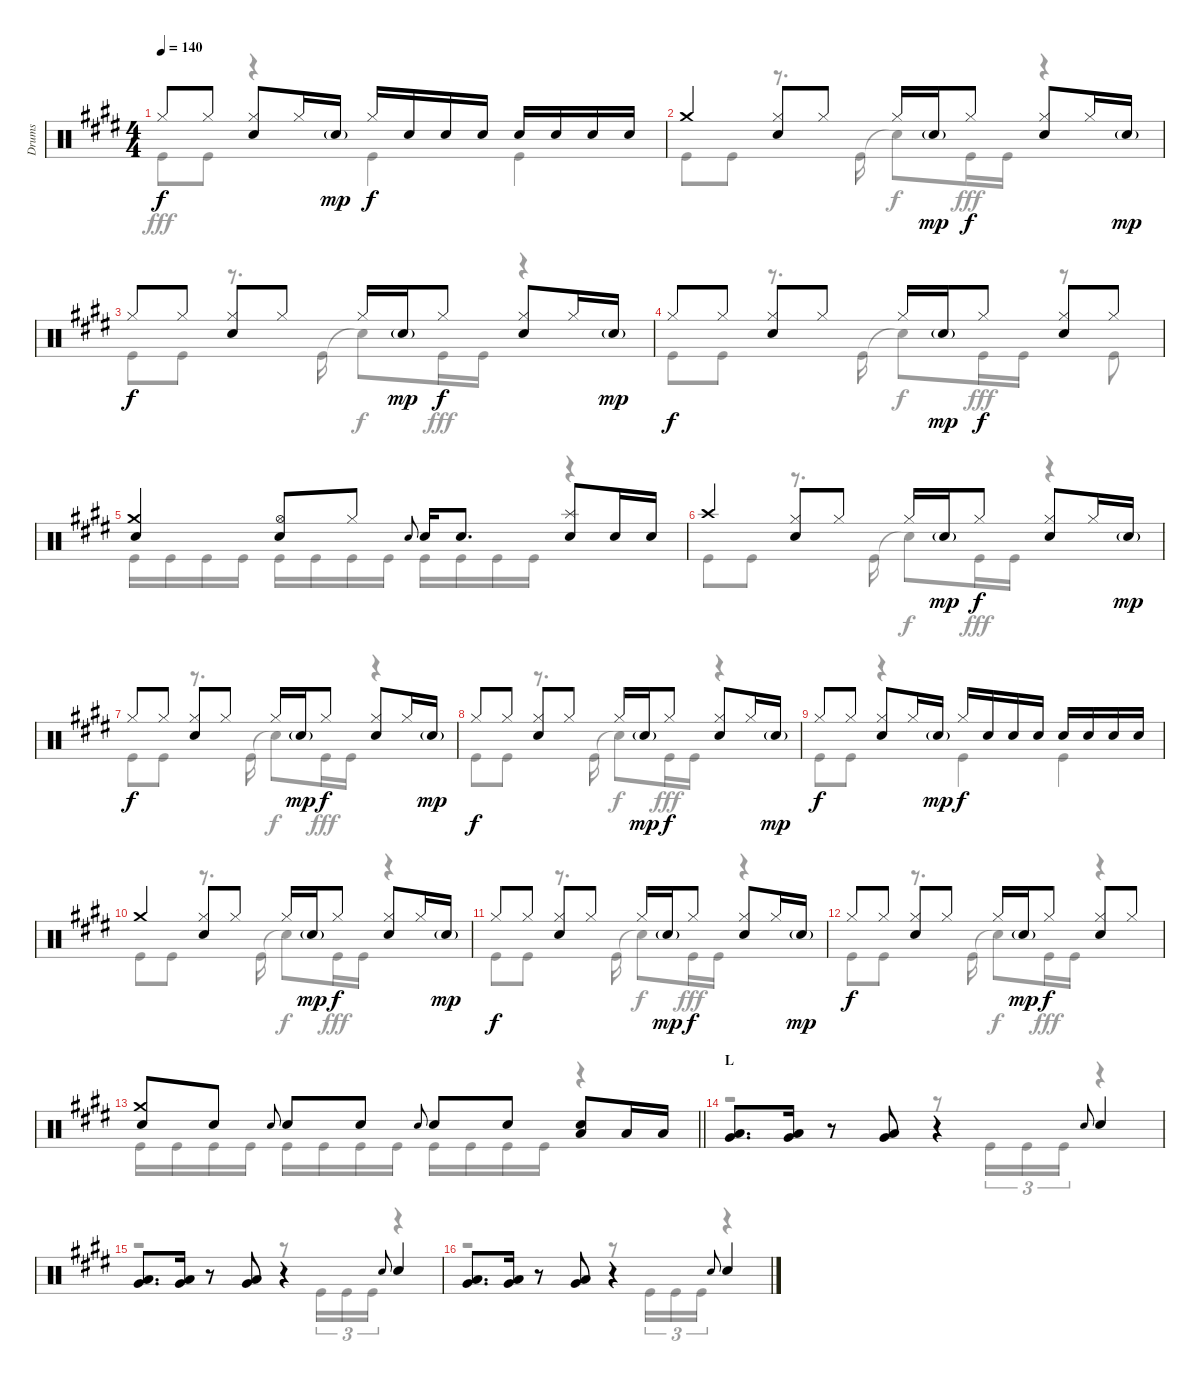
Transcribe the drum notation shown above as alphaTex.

\track ("Drums" "Drums") {instrument percussion}
\staff {score}
\articulation defaults
\voice
\ts (4 4)
\tempo 140
\clef neutral
\ks e "Hi-Hat (closed)".8{dy f} "Hi-Hat (closed)".8
("Hi-Hat (closed)" "Snare (hit) 2").8 "Hi-Hat (closed)".16 "Snare (hit) 2"{g}.16{dy mp} "Hi-Hat (closed)".16{dy f} "Snare (hit) 2".16 "Snare (hit) 2".16 "Snare (hit) 2".16 "Snare (hit) 2".16 "Snare (hit) 2".16 "Snare (hit) 2".16 "Snare (hit) 2".16 |
"Crash medium (hit)".4 ("Hi-Hat (closed)" "Snare (hit) 2").8 "Hi-Hat (closed)".8 "Hi-Hat (closed)".16 "Snare (hit) 2"{g}.16{dy mp} "Hi-Hat (closed)".8{dy f} ("Hi-Hat (closed)" "Snare (hit) 2").8 "Hi-Hat (closed)".16 "Snare (hit) 2"{g}.16{dy mp} |
"Hi-Hat (closed)".8{dy f} "Hi-Hat (closed)".8 ("Hi-Hat (closed)" "Snare (hit) 2").8 "Hi-Hat (closed)".8 "Hi-Hat (closed)".16 "Snare (hit) 2"{g}.16{dy mp} "Hi-Hat (closed)".8{dy f} ("Hi-Hat (closed)" "Snare (hit) 2").8 "Hi-Hat (closed)".16 "Snare (hit) 2"{g}.16{dy mp} |
"Hi-Hat (closed)".8{dy f} "Hi-Hat (closed)".8 ("Hi-Hat (closed)" "Snare (hit) 2").8 "Hi-Hat (closed)".8 "Hi-Hat (closed)".16 "Snare (hit) 2"{g}.16{dy mp} "Hi-Hat (closed)".8{dy f} ("Hi-Hat (closed)" "Snare (hit) 2").8 "Hi-Hat (closed)".8 |
("Crash medium (hit)" "Snare (hit) 2").4 ("Hi-Hat (open)" "Snare (hit) 2").8 "Hi-Hat (closed)".8 "Snare (hit) 2".8{gr onbeat} "Snare (hit) 2".16 "Snare (hit) 2".8{d} ("Splash (hit)" "Snare (hit) 2").8 "Snare (hit) 2".16 "Snare (hit) 2".16 |
"Crash high (hit)".4 ("Hi-Hat (closed)" "Snare (hit) 2").8 "Hi-Hat (closed)".8 "Hi-Hat (closed)".16 "Snare (hit) 2"{g}.16{dy mp} "Hi-Hat (closed)".8{dy f} ("Hi-Hat (closed)" "Snare (hit) 2").8 "Hi-Hat (closed)".16 "Snare (hit) 2"{g}.16{dy mp} |
"Hi-Hat (closed)".8{dy f} "Hi-Hat (closed)".8 ("Hi-Hat (closed)" "Snare (hit) 2").8 "Hi-Hat (closed)".8 "Hi-Hat (closed)".16 "Snare (hit) 2"{g}.16{dy mp} "Hi-Hat (closed)".8{dy f} ("Hi-Hat (closed)" "Snare (hit) 2").8 "Hi-Hat (closed)".16 "Snare (hit) 2"{g}.16{dy mp} |
"Hi-Hat (closed)".8{dy f} "Hi-Hat (closed)".8 ("Hi-Hat (closed)" "Snare (hit) 2").8 "Hi-Hat (closed)".8 "Hi-Hat (closed)".16 "Snare (hit) 2"{g}.16{dy mp} "Hi-Hat (closed)".8{dy f} ("Hi-Hat (closed)" "Snare (hit) 2").8 "Hi-Hat (closed)".16 "Snare (hit) 2"{g}.16{dy mp} |
"Hi-Hat (closed)".8{dy f} "Hi-Hat (closed)".8 ("Hi-Hat (closed)" "Snare (hit) 2").8 "Hi-Hat (closed)".16 "Snare (hit) 2"{g}.16{dy mp} "Hi-Hat (closed)".16{dy f} "Snare (hit) 2".16 "Snare (hit) 2".16 "Snare (hit) 2".16 "Snare (hit) 2".16 "Snare (hit) 2".16 "Snare (hit) 2".16 "Snare (hit) 2".16 |
"Crash medium (hit)".4 ("Hi-Hat (closed)" "Snare (hit) 2").8 "Hi-Hat (closed)".8 "Hi-Hat (closed)".16 "Snare (hit) 2"{g}.16{dy mp} "Hi-Hat (closed)".8{dy f} ("Hi-Hat (closed)" "Snare (hit) 2").8 "Hi-Hat (closed)".16 "Snare (hit) 2"{g}.16{dy mp} |
"Hi-Hat (closed)".8{dy f} "Hi-Hat (closed)".8 ("Hi-Hat (closed)" "Snare (hit) 2").8 "Hi-Hat (closed)".8 "Hi-Hat (closed)".16 "Snare (hit) 2"{g}.16{dy mp} "Hi-Hat (closed)".8{dy f} ("Hi-Hat (closed)" "Snare (hit) 2").8 "Hi-Hat (closed)".16 "Snare (hit) 2"{g}.16{dy mp} |
"Hi-Hat (closed)".8{dy f} "Hi-Hat (closed)".8 ("Hi-Hat (closed)" "Snare (hit) 2").8 "Hi-Hat (closed)".8 "Hi-Hat (closed)".16 "Snare (hit) 2"{g}.16{dy mp} "Hi-Hat (closed)".8{dy f} ("Hi-Hat (closed)" "Snare (hit) 2").8 "Hi-Hat (closed)".8 |
\barLineRight lightlight
("Crash medium (hit)" "Snare (hit) 2").8 "Snare (hit) 2".8 "Snare (hit) 2".8{gr onbeat} "Snare (hit) 2".8 "Snare (hit) 2".8 "Snare (hit) 2".8{gr onbeat} "Snare (hit) 2".8 "Snare (hit) 2".8 ("Snare (hit) 2" "Low Tom (hit)").8 "Low Tom (hit)".16 "Low Tom (hit)".16 |
\section ("" "L")
("Low Tom (hit)" "Very Low Tom (hit)").8{d} ("Low Tom (hit)" "Very Low Tom (hit)").16 r.8 ("Low Tom (hit)" "Very Low Tom (hit)").8 r.4 "Snare (hit) 2".8{gr onbeat} "Snare (hit) 2".4 |
("Low Tom (hit)" "Very Low Tom (hit)").8{d} ("Low Tom (hit)" "Very Low Tom (hit)").16 r.8 ("Low Tom (hit)" "Very Low Tom (hit)").8 r.4 "Snare (hit) 2".8{gr onbeat} "Snare (hit) 2".4 |
("Low Tom (hit)" "Very Low Tom (hit)").8{d} ("Low Tom (hit)" "Very Low Tom (hit)").16 r.8 ("Low Tom (hit)" "Very Low Tom (hit)").8 r.4 "Snare (hit) 2".8{gr onbeat} "Snare (hit) 2".4
\voice
\clef neutral
\ottava regular
\simile none
\ks e "Kick (hit)".8{dy fff} "Kick (hit)".8
r.4 "Kick (hit)".4 "Kick (hit)".4 |
"Kick (hit)".8 "Kick (hit)".8 r.8{d} "Kick (hit)".16 "Snare (hit)"{t}.8{dy f} "Kick (hit)".16{dy fff} "Kick (hit)".16 r.4 |
"Kick (hit)".8 "Kick (hit)".8 r.8{d} "Kick (hit)".16 "Snare (hit)"{t}.8{dy f} "Kick (hit)".16{dy fff} "Kick (hit)".16 r.4 |
"Kick (hit)".8 "Kick (hit)".8 r.8{d} "Kick (hit)".16 "Snare (hit)"{t}.8{dy f} "Kick (hit)".16{dy fff} "Kick (hit)".16 r.8 "Kick (hit)".8 |
"Kick (hit)".16 "Kick (hit)".16 "Kick (hit)".16 "Kick (hit)".16 "Kick (hit)".16 "Kick (hit)".16 "Kick (hit)".16 "Kick (hit)".16 "Kick (hit)".16 "Kick (hit)".16 "Kick (hit)".16 "Kick (hit)".16 r.4 |
"Kick (hit)".8 "Kick (hit)".8 r.8{d} "Kick (hit)".16 "Snare (hit)"{t}.8{dy f} "Kick (hit)".16{dy fff} "Kick (hit)".16 r.4 |
"Kick (hit)".8 "Kick (hit)".8 r.8{d} "Kick (hit)".16 "Snare (hit)"{t}.8{dy f} "Kick (hit)".16{dy fff} "Kick (hit)".16 r.4 |
"Kick (hit)".8 "Kick (hit)".8 r.8{d} "Kick (hit)".16 "Snare (hit)"{t}.8{dy f} "Kick (hit)".16{dy fff} "Kick (hit)".16 r.4 |
"Kick (hit)".8 "Kick (hit)".8 r.4 "Kick (hit)".4 "Kick (hit)".4 |
"Kick (hit)".8 "Kick (hit)".8 r.8{d} "Kick (hit)".16 "Snare (hit)"{t}.8{dy f} "Kick (hit)".16{dy fff} "Kick (hit)".16 r.4 |
"Kick (hit)".8 "Kick (hit)".8 r.8{d} "Kick (hit)".16 "Snare (hit)"{t}.8{dy f} "Kick (hit)".16{dy fff} "Kick (hit)".16 r.4 |
"Kick (hit)".8 "Kick (hit)".8 r.8{d} "Kick (hit)".16 "Snare (hit)"{t}.8{dy f} "Kick (hit)".16{dy fff} "Kick (hit)".16 r.4 |
\barLineRight lightlight "Kick (hit)".16 "Kick (hit)".16 "Kick (hit)".16 "Kick (hit)".16 "Kick (hit)".16 "Kick (hit)".16 "Kick (hit)".16 "Kick (hit)".16 "Kick (hit)".16 "Kick (hit)".16 "Kick (hit)".16 "Kick (hit)".16
r.4 |
r.2 r.8 "Kick (hit)".16{tu (3 2)} "Kick (hit)".16{tu (3 2)} "Kick (hit)".16{tu (3 2)} r.4 |
r.2 r.8 "Kick (hit)".16{tu (3 2)} "Kick (hit)".16{tu (3 2)} "Kick (hit)".16{tu (3 2)} r.4 |
r.2 r.8 "Kick (hit)".16{tu (3 2)} "Kick (hit)".16{tu (3 2)} "Kick (hit)".16{tu (3 2)} r.4
